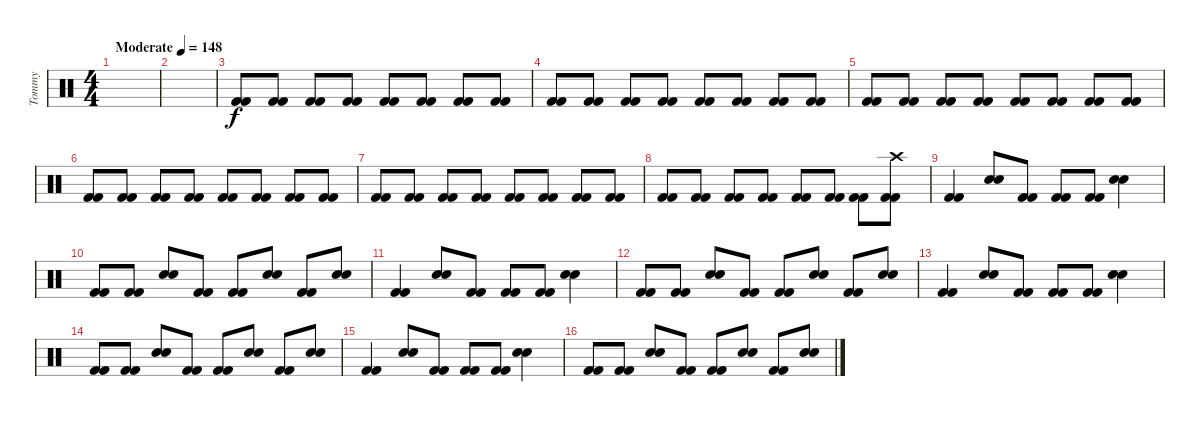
\track ("Tommy" "Tommy") {instrument percussion}
\staff {score}
\articulation defaults
\ts (4 4)
\tempo (148 "Moderate")
\clef neutral
\ks c
|
|
("Kick (hit) 2" "Kick (hit) 2").8{volume 0} ("Kick (hit) 2" "Kick (hit) 2").8{volume 13} ("Kick (hit) 2" "Kick (hit) 2").8 ("Kick (hit) 2" "Kick (hit) 2").8 ("Kick (hit) 2" "Kick (hit) 2").8 ("Kick (hit) 2" "Kick (hit) 2").8 ("Kick (hit) 2" "Kick (hit) 2").8 ("Kick (hit) 2" "Kick (hit) 2").8 |
("Kick (hit) 2" "Kick (hit) 2").8 ("Kick (hit) 2" "Kick (hit) 2").8 ("Kick (hit) 2" "Kick (hit) 2").8 ("Kick (hit) 2" "Kick (hit) 2").8 ("Kick (hit) 2" "Kick (hit) 2").8 ("Kick (hit) 2" "Kick (hit) 2").8 ("Kick (hit) 2" "Kick (hit) 2").8 ("Kick (hit) 2" "Kick (hit) 2").8 |
("Kick (hit) 2" "Kick (hit) 2").8 ("Kick (hit) 2" "Kick (hit) 2").8 ("Kick (hit) 2" "Kick (hit) 2").8 ("Kick (hit) 2" "Kick (hit) 2").8 ("Kick (hit) 2" "Kick (hit) 2").8 ("Kick (hit) 2" "Kick (hit) 2").8 ("Kick (hit) 2" "Kick (hit) 2").8 ("Kick (hit) 2" "Kick (hit) 2").8 |
("Kick (hit) 2" "Kick (hit) 2").8 ("Kick (hit) 2" "Kick (hit) 2").8 ("Kick (hit) 2" "Kick (hit) 2").8 ("Kick (hit) 2" "Kick (hit) 2").8 ("Kick (hit) 2" "Kick (hit) 2").8 ("Kick (hit) 2" "Kick (hit) 2").8 ("Kick (hit) 2" "Kick (hit) 2").8 ("Kick (hit) 2" "Kick (hit) 2").8 |
("Kick (hit) 2" "Kick (hit) 2").8 ("Kick (hit) 2" "Kick (hit) 2").8 ("Kick (hit) 2" "Kick (hit) 2").8 ("Kick (hit) 2" "Kick (hit) 2").8 ("Kick (hit) 2" "Kick (hit) 2").8 ("Kick (hit) 2" "Kick (hit) 2").8 ("Kick (hit) 2" "Kick (hit) 2").8 ("Kick (hit) 2" "Kick (hit) 2").8 |
("Kick (hit) 2" "Kick (hit) 2").8 ("Kick (hit) 2" "Kick (hit) 2").8 ("Kick (hit) 2" "Kick (hit) 2").8 ("Kick (hit) 2" "Kick (hit) 2").8 ("Kick (hit) 2" "Kick (hit) 2").8 ("Kick (hit) 2" "Kick (hit) 2").8 ("Kick (hit) 2" "Kick (hit) 2").8 ("Kick (hit) 2" "Crash high (hit)" "Kick (hit) 2").8 |
("Kick (hit) 2" "Kick (hit) 2").4 ("Snare (hit) 2" "Snare (hit) 2").8 ("Kick (hit) 2" "Kick (hit) 2").8 ("Kick (hit) 2" "Kick (hit) 2").8 ("Kick (hit) 2" "Kick (hit) 2").8 ("Snare (hit) 2" "Snare (hit) 2").4 |
("Kick (hit) 2" "Kick (hit) 2").8 ("Kick (hit) 2" "Kick (hit) 2").8 ("Snare (hit) 2" "Snare (hit) 2").8 ("Kick (hit) 2" "Kick (hit) 2").8 ("Kick (hit) 2" "Kick (hit) 2").8 ("Snare (hit) 2" "Snare (hit) 2").8 ("Kick (hit) 2" "Kick (hit) 2").8 ("Snare (hit) 2" "Snare (hit) 2").8 |
("Kick (hit) 2" "Kick (hit) 2").4 ("Snare (hit) 2" "Snare (hit) 2").8 ("Kick (hit) 2" "Kick (hit) 2").8 ("Kick (hit) 2" "Kick (hit) 2").8 ("Kick (hit) 2" "Kick (hit) 2").8 ("Snare (hit) 2" "Snare (hit) 2").4 |
("Kick (hit) 2" "Kick (hit) 2").8 ("Kick (hit) 2" "Kick (hit) 2").8 ("Snare (hit) 2" "Snare (hit) 2").8 ("Kick (hit) 2" "Kick (hit) 2").8 ("Kick (hit) 2" "Kick (hit) 2").8 ("Snare (hit) 2" "Snare (hit) 2").8 ("Kick (hit) 2" "Kick (hit) 2").8 ("Snare (hit) 2" "Snare (hit) 2").8 |
("Kick (hit) 2" "Kick (hit) 2").4 ("Snare (hit) 2" "Snare (hit) 2").8 ("Kick (hit) 2" "Kick (hit) 2").8 ("Kick (hit) 2" "Kick (hit) 2").8 ("Kick (hit) 2" "Kick (hit) 2").8 ("Snare (hit) 2" "Snare (hit) 2").4 |
("Kick (hit) 2" "Kick (hit) 2").8 ("Kick (hit) 2" "Kick (hit) 2").8 ("Snare (hit) 2" "Snare (hit) 2").8 ("Kick (hit) 2" "Kick (hit) 2").8 ("Kick (hit) 2" "Kick (hit) 2").8 ("Snare (hit) 2" "Snare (hit) 2").8 ("Kick (hit) 2" "Kick (hit) 2").8 ("Snare (hit) 2" "Snare (hit) 2").8 |
("Kick (hit) 2" "Kick (hit) 2").4 ("Snare (hit) 2" "Snare (hit) 2").8 ("Kick (hit) 2" "Kick (hit) 2").8 ("Kick (hit) 2" "Kick (hit) 2").8 ("Kick (hit) 2" "Kick (hit) 2").8 ("Snare (hit) 2" "Snare (hit) 2").4 |
("Kick (hit) 2" "Kick (hit) 2").8 ("Kick (hit) 2" "Kick (hit) 2").8 ("Snare (hit) 2" "Snare (hit) 2").8 ("Kick (hit) 2" "Kick (hit) 2").8 ("Kick (hit) 2" "Kick (hit) 2").8 ("Snare (hit) 2" "Snare (hit) 2").8 ("Kick (hit) 2" "Kick (hit) 2").8 ("Snare (hit) 2" "Snare (hit) 2").8
